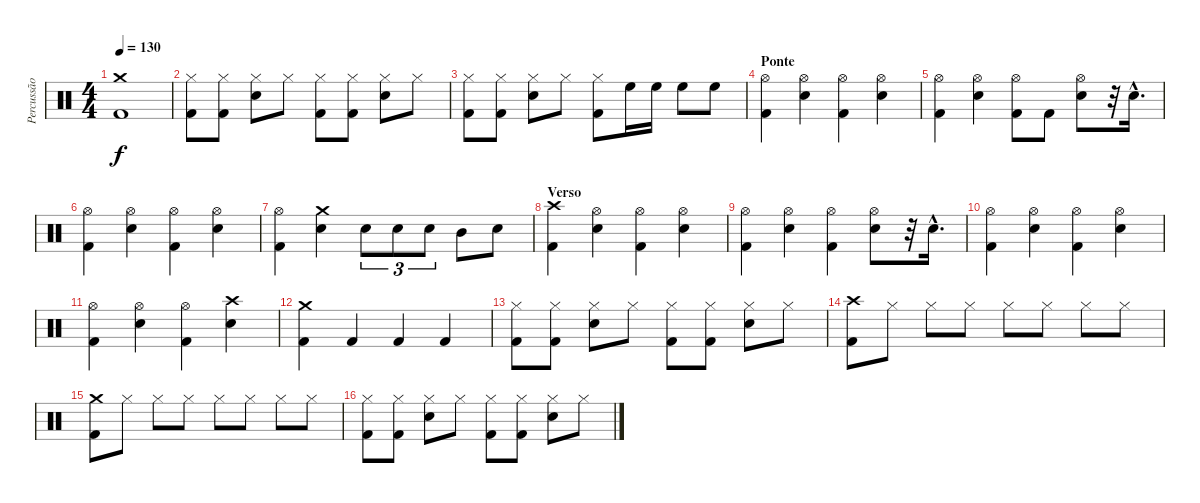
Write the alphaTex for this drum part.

\track ("Percussão" "Percussão") {instrument percussion}
\staff {score}
\articulation defaults
\ts (4 4)
\tempo 130
\clef neutral
\ks c
("Crash medium (hit)" "Kick (hit) 2").1{dy f} |
("Hi-Hat (closed)" "Kick (hit) 2").8 ("Hi-Hat (closed)" "Kick (hit) 2").8 ("Hi-Hat (closed)" "Electric Snare (hit)").8 "Hi-Hat (closed)".8 ("Hi-Hat (closed)" "Kick (hit) 2").8 ("Hi-Hat (closed)" "Kick (hit) 2").8 ("Hi-Hat (closed)" "Electric Snare (hit)").8 "Hi-Hat (closed)".8 |
("Hi-Hat (closed)" "Kick (hit) 2").8 ("Hi-Hat (closed)" "Kick (hit) 2").8 ("Hi-Hat (closed)" "Electric Snare (hit)").8 "Hi-Hat (closed)".8 ("Hi-Hat (closed)" "Kick (hit) 2").8 "High Floor Tom (hit)".16 "High Floor Tom (hit)".16 "High Floor Tom (hit)".8 "High Floor Tom (hit)".8 |
\section ("" "Ponte")
("Hi-Hat (open)" "Kick (hit) 2").4 ("Hi-Hat (open)" "Electric Snare (hit)").4 ("Hi-Hat (open)" "Kick (hit) 2").4 ("Hi-Hat (open)" "Electric Snare (hit)").4 |
("Hi-Hat (open)" "Kick (hit) 2").4 ("Hi-Hat (open)" "Electric Snare (hit)").4 ("Hi-Hat (open)" "Kick (hit) 2").8 "Kick (hit) 2".8 ("Hi-Hat (open)" "Electric Snare (hit)").8 r.32 "Electric Snare (hit)"{hac}.16{d} |
("Hi-Hat (open)" "Kick (hit) 2").4 ("Hi-Hat (open)" "Electric Snare (hit)").4 ("Hi-Hat (open)" "Kick (hit) 2").4 ("Hi-Hat (open)" "Electric Snare (hit)").4 |
("Hi-Hat (open)" "Kick (hit) 2").4 ("Crash medium (hit)" "Electric Snare (hit)").4 "Electric Snare (hit)".8{tu (3 2)} "Electric Snare (hit)".8{tu (3 2)} "Electric Snare (hit)".8{tu (3 2)} "Mid Tom (hit)".8 "Electric Snare (hit)".8 |
\section ("" "Verso")
("Crash high (hit)" "Kick (hit) 2").4 ("Hi-Hat (open)" "Electric Snare (hit)").4 ("Hi-Hat (open)" "Kick (hit) 2").4 ("Hi-Hat (open)" "Electric Snare (hit)").4 |
("Hi-Hat (open)" "Kick (hit) 2").4 ("Hi-Hat (open)" "Electric Snare (hit)").4 ("Hi-Hat (open)" "Kick (hit) 2").4 ("Hi-Hat (open)" "Electric Snare (hit)").8 r.32 "Electric Snare (hit)"{hac}.16{d} |
("Hi-Hat (open)" "Kick (hit) 2").4 ("Hi-Hat (open)" "Electric Snare (hit)").4 ("Hi-Hat (open)" "Kick (hit) 2").4 ("Hi-Hat (open)" "Electric Snare (hit)").4 |
("Hi-Hat (open)" "Kick (hit) 2").4 ("Hi-Hat (open)" "Electric Snare (hit)").4 ("Hi-Hat (open)" "Kick (hit) 2").4 ("Crash high (hit)" "Electric Snare (hit)").4 |
("Crash medium (hit)" "Kick (hit) 2").4 "Kick (hit) 2".4 "Kick (hit) 2".4 "Kick (hit) 2".4 |
("Hi-Hat (closed)" "Kick (hit) 2").8 ("Hi-Hat (closed)" "Kick (hit) 2").8 ("Hi-Hat (closed)" "Electric Snare (hit)").8 "Hi-Hat (closed)".8 ("Hi-Hat (closed)" "Kick (hit) 2").8 ("Hi-Hat (closed)" "Kick (hit) 2").8 ("Hi-Hat (closed)" "Electric Snare (hit)").8 "Hi-Hat (closed)".8 |
("Crash high (hit)" "Kick (hit) 2").8 "Hi-Hat (closed)".8 "Hi-Hat (closed)".8 "Hi-Hat (closed)".8 "Hi-Hat (closed)".8 "Hi-Hat (closed)".8 "Hi-Hat (closed)".8 "Hi-Hat (closed)".8 |
("Crash medium (hit)" "Kick (hit) 2").8 "Hi-Hat (closed)".8 "Hi-Hat (closed)".8 "Hi-Hat (closed)".8 "Hi-Hat (closed)".8 "Hi-Hat (closed)".8 "Hi-Hat (closed)".8 "Hi-Hat (closed)".8 |
("Hi-Hat (closed)" "Kick (hit) 2").8 ("Hi-Hat (closed)" "Kick (hit) 2").8 ("Hi-Hat (closed)" "Electric Snare (hit)").8 "Hi-Hat (closed)".8 ("Hi-Hat (closed)" "Kick (hit) 2").8 ("Hi-Hat (closed)" "Kick (hit) 2").8 ("Hi-Hat (closed)" "Electric Snare (hit)").8 "Hi-Hat (closed)".8
